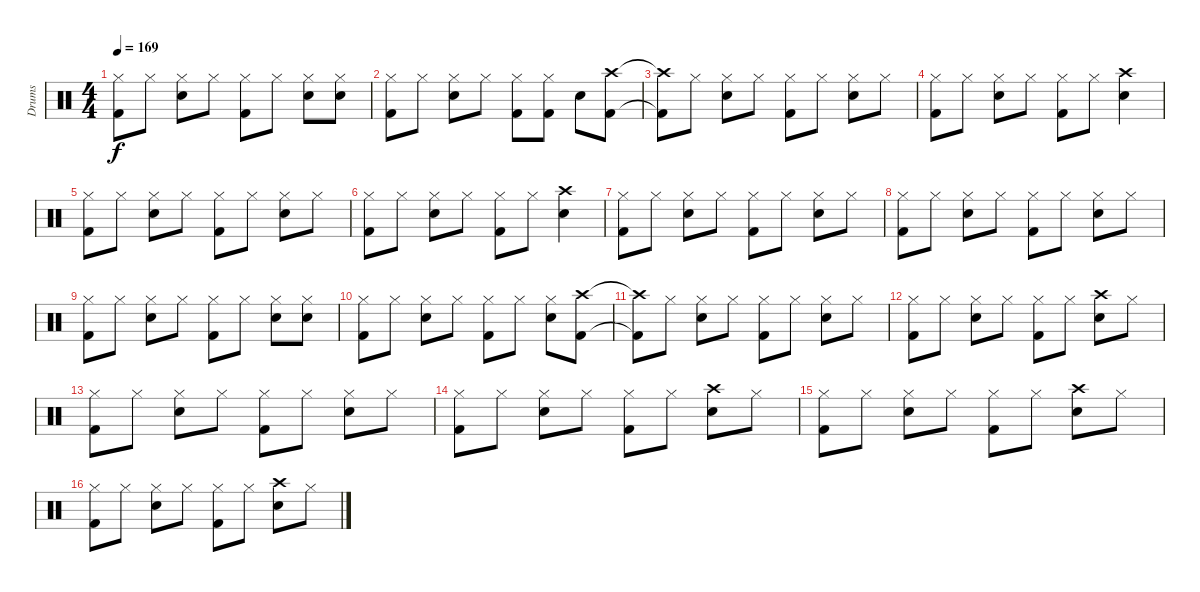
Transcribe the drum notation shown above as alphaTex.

\track ("Drums" "Drums") {instrument percussion}
\staff {score}
\articulation defaults
\ts (4 4)
\tempo 169
\clef neutral
\ks c
("Hi-Hat (closed)" "Kick (hit) 2").8{dy f} "Hi-Hat (closed)".8 ("Hi-Hat (closed)" "Snare (hit) 2").8 "Hi-Hat (closed)".8 ("Hi-Hat (closed)" "Kick (hit) 2").8 "Hi-Hat (closed)".8 ("Hi-Hat (closed)" "Snare (hit) 2").8 ("Hi-Hat (closed)" "Snare (hit) 2").8 |
("Hi-Hat (closed)" "Kick (hit) 2").8 "Hi-Hat (closed)".8 ("Hi-Hat (closed)" "Snare (hit) 2").8 "Hi-Hat (closed)".8 ("Hi-Hat (closed)" "Kick (hit) 2").8 ("Hi-Hat (closed)" "Kick (hit) 2").8 "Snare (hit) 2".8 ("Crash high (hit)" "Kick (hit) 2").8 |
("Crash high (hit)"{t} "Kick (hit) 2"{t}).8 "Hi-Hat (closed)".8 ("Hi-Hat (closed)" "Snare (hit) 2").8 "Hi-Hat (closed)".8 ("Hi-Hat (closed)" "Kick (hit) 2").8 "Hi-Hat (closed)".8 ("Hi-Hat (closed)" "Snare (hit) 2").8 "Hi-Hat (closed)".8 |
("Hi-Hat (closed)" "Kick (hit) 2").8 "Hi-Hat (closed)".8 ("Hi-Hat (closed)" "Snare (hit) 2").8 "Hi-Hat (closed)".8 ("Hi-Hat (closed)" "Kick (hit) 2").8 "Hi-Hat (closed)".8 ("Crash high (hit)" "Snare (hit) 2").4 |
("Hi-Hat (closed)" "Kick (hit) 2").8 "Hi-Hat (closed)".8 ("Hi-Hat (closed)" "Snare (hit) 2").8 "Hi-Hat (closed)".8 ("Hi-Hat (closed)" "Kick (hit) 2").8 "Hi-Hat (closed)".8 ("Hi-Hat (closed)" "Snare (hit) 2").8 "Hi-Hat (closed)".8 |
("Hi-Hat (closed)" "Kick (hit) 2").8 "Hi-Hat (closed)".8 ("Hi-Hat (closed)" "Snare (hit) 2").8 "Hi-Hat (closed)".8 ("Hi-Hat (closed)" "Kick (hit) 2").8 "Hi-Hat (closed)".8 ("Crash high (hit)" "Snare (hit) 2").4 |
("Hi-Hat (closed)" "Kick (hit) 2").8 "Hi-Hat (closed)".8 ("Hi-Hat (closed)" "Snare (hit) 2").8 "Hi-Hat (closed)".8 ("Hi-Hat (closed)" "Kick (hit) 2").8 "Hi-Hat (closed)".8 ("Hi-Hat (closed)" "Snare (hit) 2").8 "Hi-Hat (closed)".8 |
("Hi-Hat (closed)" "Kick (hit) 2").8 "Hi-Hat (closed)".8 ("Hi-Hat (closed)" "Snare (hit) 2").8 "Hi-Hat (closed)".8 ("Hi-Hat (closed)" "Kick (hit) 2").8 "Hi-Hat (closed)".8 ("Hi-Hat (closed)" "Snare (hit) 2").8 "Hi-Hat (closed)".8 |
("Hi-Hat (closed)" "Kick (hit) 2").8 "Hi-Hat (closed)".8 ("Hi-Hat (closed)" "Snare (hit) 2").8 "Hi-Hat (closed)".8 ("Hi-Hat (closed)" "Kick (hit) 2").8 "Hi-Hat (closed)".8 ("Hi-Hat (closed)" "Snare (hit) 2").8 ("Hi-Hat (closed)" "Snare (hit) 2").8 |
("Hi-Hat (closed)" "Kick (hit) 2").8 "Hi-Hat (closed)".8 ("Hi-Hat (closed)" "Snare (hit) 2").8 "Hi-Hat (closed)".8 ("Hi-Hat (closed)" "Kick (hit) 2").8 "Hi-Hat (closed)".8 ("Hi-Hat (closed)" "Snare (hit) 2").8 ("Crash high (hit)" "Kick (hit) 2").8 |
("Crash high (hit)"{t} "Kick (hit) 2"{t}).8 "Hi-Hat (closed)".8 ("Hi-Hat (closed)" "Snare (hit) 2").8 "Hi-Hat (closed)".8 ("Hi-Hat (closed)" "Kick (hit) 2").8 "Hi-Hat (closed)".8 ("Hi-Hat (closed)" "Snare (hit) 2").8 "Hi-Hat (closed)".8 |
("Hi-Hat (closed)" "Kick (hit) 2").8 "Hi-Hat (closed)".8 ("Hi-Hat (closed)" "Snare (hit) 2").8 "Hi-Hat (closed)".8 ("Hi-Hat (closed)" "Kick (hit) 2").8 "Hi-Hat (closed)".8 ("Crash high (hit)" "Snare (hit) 2").8 "Hi-Hat (closed)".8 |
("Hi-Hat (closed)" "Kick (hit) 2").8 "Hi-Hat (closed)".8 ("Hi-Hat (closed)" "Snare (hit) 2").8 "Hi-Hat (closed)".8 ("Hi-Hat (closed)" "Kick (hit) 2").8 "Hi-Hat (closed)".8 ("Hi-Hat (closed)" "Snare (hit) 2").8 "Hi-Hat (closed)".8 |
("Hi-Hat (closed)" "Kick (hit) 2").8 "Hi-Hat (closed)".8 ("Hi-Hat (closed)" "Snare (hit) 2").8 "Hi-Hat (closed)".8 ("Hi-Hat (closed)" "Kick (hit) 2").8 "Hi-Hat (closed)".8 ("Crash high (hit)" "Snare (hit) 2").8 "Hi-Hat (closed)".8 |
("Hi-Hat (closed)" "Kick (hit) 2").8 "Hi-Hat (closed)".8 ("Hi-Hat (closed)" "Snare (hit) 2").8 "Hi-Hat (closed)".8 ("Hi-Hat (closed)" "Kick (hit) 2").8 "Hi-Hat (closed)".8 ("Crash high (hit)" "Snare (hit) 2").8 "Hi-Hat (closed)".8 |
("Hi-Hat (closed)" "Kick (hit) 2").8 "Hi-Hat (closed)".8 ("Hi-Hat (closed)" "Snare (hit) 2").8 "Hi-Hat (closed)".8 ("Hi-Hat (closed)" "Kick (hit) 2").8 "Hi-Hat (closed)".8 ("Crash high (hit)" "Snare (hit) 2").8 "Hi-Hat (closed)".8
